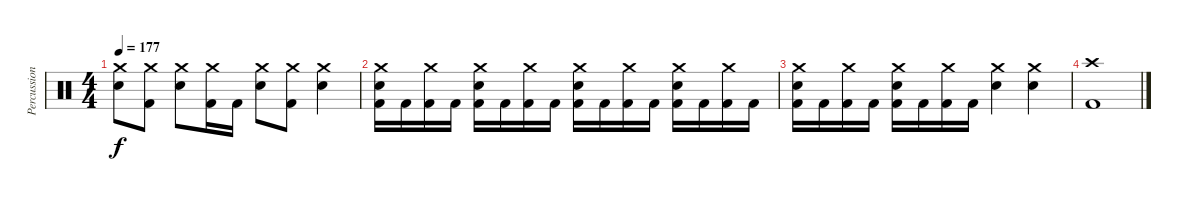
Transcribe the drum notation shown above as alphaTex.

\track ("Percussion" "Percussion") {instrument percussion}
\staff {score}
\articulation defaults
\ts (4 4)
\tempo 177
\clef neutral
\ks c
("Crash medium (hit)" "Snare (hit) 2").8{dy f} ("Crash medium (hit)" "Kick (hit) 2").8 ("Crash medium (hit)" "Snare (hit) 2").8 ("Crash medium (hit)" "Kick (hit) 2").16 "Kick (hit) 2".16 ("Crash medium (hit)" "Snare (hit) 2").8 ("Crash medium (hit)" "Kick (hit) 2").8 ("Crash medium (hit)" "Snare (hit) 2").4 |
("Crash medium (hit)" "Snare (hit) 2" "Kick (hit) 2").16 "Kick (hit) 2".16 ("Crash medium (hit)" "Kick (hit) 2").16 "Kick (hit) 2".16 ("Crash medium (hit)" "Snare (hit) 2" "Kick (hit) 2").16 "Kick (hit) 2".16 ("Crash medium (hit)" "Kick (hit) 2").16 "Kick (hit) 2".16 ("Crash medium (hit)" "Snare (hit) 2" "Kick (hit) 2").16 "Kick (hit) 2".16 ("Crash medium (hit)" "Kick (hit) 2").16 "Kick (hit) 2".16 ("Crash medium (hit)" "Snare (hit) 2" "Kick (hit) 2").16 "Kick (hit) 2".16 ("Crash medium (hit)" "Kick (hit) 2").16 "Kick (hit) 2".16 |
("Crash medium (hit)" "Snare (hit) 2" "Kick (hit) 2").16 "Kick (hit) 2".16 ("Crash medium (hit)" "Kick (hit) 2").16 "Kick (hit) 2".16 ("Crash medium (hit)" "Snare (hit) 2" "Kick (hit) 2").16 "Kick (hit) 2".16 ("Crash medium (hit)" "Kick (hit) 2").16 "Kick (hit) 2".16 ("Crash medium (hit)" "Snare (hit) 2").4 ("Crash medium (hit)" "Snare (hit) 2").4 |
("Crash high (hit)" "Kick (hit) 2").1
